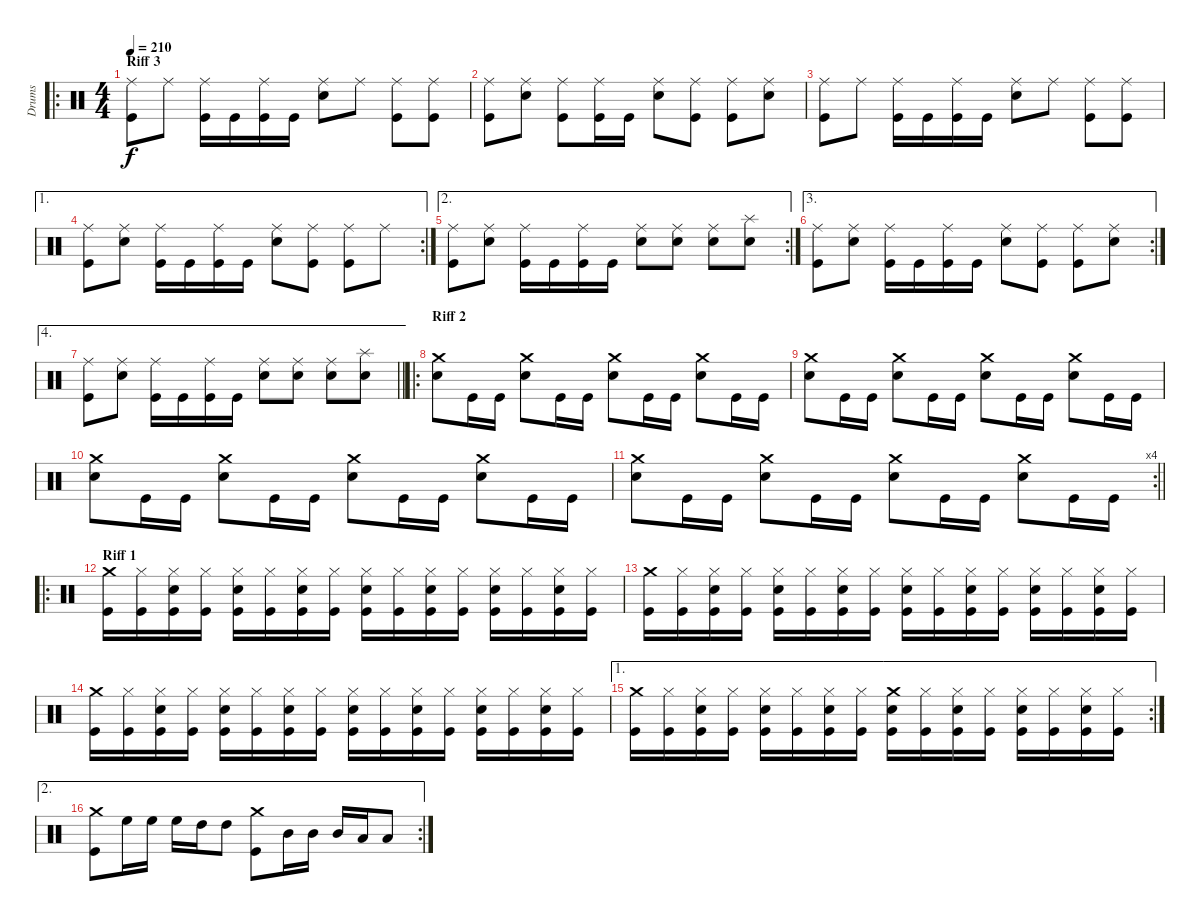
\track ("Drums" "Drums") {instrument percussion}
\staff {score}
\articulation defaults
\ro
\ts (4 4)
\section ("" "Riff 3")
\tempo 210
\clef neutral
\ks c
("Ride (middle)" "Kick (hit)").8{dy f} "Ride (middle)".8 ("Ride (middle)" "Kick (hit)").16 "Kick (hit)".16 ("Ride (middle)" "Kick (hit)").16 "Kick (hit)".16 ("Ride (middle)" "Snare (hit) 2").8 "Ride (middle)".8 ("Ride (middle)" "Kick (hit)").8 ("Ride (middle)" "Kick (hit)").8 |
("Ride (middle)" "Kick (hit)").8 ("Ride (middle)" "Snare (hit) 2").8 ("Ride (middle)" "Kick (hit)").8 ("Ride (middle)" "Kick (hit)").16 "Kick (hit)".16 ("Ride (middle)" "Snare (hit) 2").8 ("Ride (middle)" "Kick (hit)").8 ("Ride (middle)" "Kick (hit)").8 ("Ride (middle)" "Snare (hit) 2").8 |
("Ride (middle)" "Kick (hit)").8 "Ride (middle)".8 ("Ride (middle)" "Kick (hit)").16 "Kick (hit)".16 ("Ride (middle)" "Kick (hit)").16 "Kick (hit)".16 ("Ride (middle)" "Snare (hit) 2").8 "Ride (middle)".8 ("Ride (middle)" "Kick (hit)").8 ("Ride (middle)" "Kick (hit)").8 |
\ae 1
\rc 2
("Ride (middle)" "Kick (hit)").8 ("Ride (middle)" "Snare (hit) 2").8 ("Ride (middle)" "Kick (hit)").16 "Kick (hit)".16 ("Ride (middle)" "Kick (hit)").16 "Kick (hit)".16 ("Ride (middle)" "Snare (hit) 2").8 ("Ride (middle)" "Kick (hit)").8 ("Ride (middle)" "Kick (hit)").8 "Ride (middle)".8 |
\ae 2
\rc 2
("Ride (middle)" "Kick (hit)").8 ("Ride (middle)" "Snare (hit) 2").8 ("Ride (middle)" "Kick (hit)").16 "Kick (hit)".16 ("Ride (middle)" "Kick (hit)").16 "Kick (hit)".16 ("Ride (middle)" "Snare (hit) 2").8 ("Ride (middle)" "Snare (hit) 2").8 ("Ride (middle)" "Snare (hit) 2").8 ("Splash (hit)" "Snare (hit) 2").8 |
\ae 3
\rc 2
("Ride (middle)" "Kick (hit)").8 ("Ride (middle)" "Snare (hit) 2").8 ("Ride (middle)" "Kick (hit)").16 "Kick (hit)".16 ("Ride (middle)" "Kick (hit)").16 "Kick (hit)".16 ("Ride (middle)" "Snare (hit) 2").8 ("Ride (middle)" "Kick (hit)").8 ("Ride (middle)" "Kick (hit)").8 ("Ride (middle)" "Snare (hit) 2").8 |
\ae 4
\barLineRight lightlight
("Ride (middle)" "Kick (hit)").8 ("Ride (middle)" "Snare (hit) 2").8 ("Ride (middle)" "Kick (hit)").16 "Kick (hit)".16 ("Ride (middle)" "Kick (hit)").16 "Kick (hit)".16 ("Ride (middle)" "Snare (hit) 2").8 ("Ride (middle)" "Snare (hit) 2").8 ("Ride (middle)" "Snare (hit) 2").8 ("Splash (hit)" "Snare (hit) 2").8 |
\ro
\section ("" "Riff 2")
("Crash medium (hit)" "Snare (hit) 2").8 "Kick (hit)".16 "Kick (hit)".16 ("Crash medium (hit)" "Snare (hit) 2").8 "Kick (hit)".16 "Kick (hit)".16 ("Crash medium (hit)" "Snare (hit) 2").8 "Kick (hit)".16 "Kick (hit)".16 ("Crash medium (hit)" "Snare (hit) 2").8 "Kick (hit)".16 "Kick (hit)".16 |
("Crash medium (hit)" "Snare (hit) 2").8 "Kick (hit)".16 "Kick (hit)".16 ("Crash medium (hit)" "Snare (hit) 2").8 "Kick (hit)".16 "Kick (hit)".16 ("Crash medium (hit)" "Snare (hit) 2").8 "Kick (hit)".16 "Kick (hit)".16 ("Crash medium (hit)" "Snare (hit) 2").8 "Kick (hit)".16 "Kick (hit)".16 |
("Crash medium (hit)" "Snare (hit) 2").8 "Kick (hit)".16 "Kick (hit)".16 ("Crash medium (hit)" "Snare (hit) 2").8 "Kick (hit)".16 "Kick (hit)".16 ("Crash medium (hit)" "Snare (hit) 2").8 "Kick (hit)".16 "Kick (hit)".16 ("Crash medium (hit)" "Snare (hit) 2").8 "Kick (hit)".16 "Kick (hit)".16 |
\rc 4
\barLineRight lightlight
("Crash medium (hit)" "Snare (hit) 2").8 "Kick (hit)".16 "Kick (hit)".16 ("Crash medium (hit)" "Snare (hit) 2").8 "Kick (hit)".16 "Kick (hit)".16 ("Crash medium (hit)" "Snare (hit) 2").8 "Kick (hit)".16 "Kick (hit)".16 ("Crash medium (hit)" "Snare (hit) 2").8 "Kick (hit)".16 "Kick (hit)".16 |
\ro
\section ("" "Riff 1")
("Crash medium (hit)" "Kick (hit)").16 ("Hi-Hat (closed)" "Kick (hit)").16 ("Hi-Hat (closed)" "Snare (hit) 2" "Kick (hit)").16 ("Hi-Hat (closed)" "Kick (hit)").16 ("Hi-Hat (closed)" "Snare (hit) 2" "Kick (hit)").16 ("Hi-Hat (closed)" "Kick (hit)").16 ("Hi-Hat (closed)" "Snare (hit) 2" "Kick (hit)").16 ("Hi-Hat (closed)" "Kick (hit)").16 ("Hi-Hat (closed)" "Snare (hit) 2" "Kick (hit)").16 ("Hi-Hat (closed)" "Kick (hit)").16 ("Hi-Hat (closed)" "Snare (hit) 2" "Kick (hit)").16 ("Hi-Hat (closed)" "Kick (hit)").16 ("Hi-Hat (closed)" "Snare (hit) 2" "Kick (hit)").16 ("Hi-Hat (closed)" "Kick (hit)").16 ("Hi-Hat (closed)" "Snare (hit) 2" "Kick (hit)").16 ("Hi-Hat (closed)" "Kick (hit)").16 |
("Crash medium (hit)" "Kick (hit)").16 ("Hi-Hat (closed)" "Kick (hit)").16 ("Hi-Hat (closed)" "Snare (hit) 2" "Kick (hit)").16 ("Hi-Hat (closed)" "Kick (hit)").16 ("Hi-Hat (closed)" "Snare (hit) 2" "Kick (hit)").16 ("Hi-Hat (closed)" "Kick (hit)").16 ("Hi-Hat (closed)" "Snare (hit) 2" "Kick (hit)").16 ("Hi-Hat (closed)" "Kick (hit)").16 ("Hi-Hat (closed)" "Snare (hit) 2" "Kick (hit)").16 ("Hi-Hat (closed)" "Kick (hit)").16 ("Hi-Hat (closed)" "Snare (hit) 2" "Kick (hit)").16 ("Hi-Hat (closed)" "Kick (hit)").16 ("Hi-Hat (closed)" "Snare (hit) 2" "Kick (hit)").16 ("Hi-Hat (closed)" "Kick (hit)").16 ("Hi-Hat (closed)" "Snare (hit) 2" "Kick (hit)").16 ("Hi-Hat (closed)" "Kick (hit)").16 |
("Crash medium (hit)" "Kick (hit)").16 ("Hi-Hat (closed)" "Kick (hit)").16 ("Hi-Hat (closed)" "Snare (hit) 2" "Kick (hit)").16 ("Hi-Hat (closed)" "Kick (hit)").16 ("Hi-Hat (closed)" "Snare (hit) 2" "Kick (hit)").16 ("Hi-Hat (closed)" "Kick (hit)").16 ("Hi-Hat (closed)" "Snare (hit) 2" "Kick (hit)").16 ("Hi-Hat (closed)" "Kick (hit)").16 ("Hi-Hat (closed)" "Snare (hit) 2" "Kick (hit)").16 ("Hi-Hat (closed)" "Kick (hit)").16 ("Hi-Hat (closed)" "Snare (hit) 2" "Kick (hit)").16 ("Hi-Hat (closed)" "Kick (hit)").16 ("Hi-Hat (closed)" "Snare (hit) 2" "Kick (hit)").16 ("Hi-Hat (closed)" "Kick (hit)").16 ("Hi-Hat (closed)" "Snare (hit) 2" "Kick (hit)").16 ("Hi-Hat (closed)" "Kick (hit)").16 |
\ae 1
\rc 2
("Crash medium (hit)" "Kick (hit)").16 ("Hi-Hat (closed)" "Kick (hit)").16 ("Hi-Hat (closed)" "Snare (hit) 2" "Kick (hit)").16 ("Hi-Hat (closed)" "Kick (hit)").16 ("Hi-Hat (closed)" "Snare (hit) 2" "Kick (hit)").16 ("Hi-Hat (closed)" "Kick (hit)").16 ("Hi-Hat (closed)" "Snare (hit) 2" "Kick (hit)").16 ("Hi-Hat (closed)" "Kick (hit)").16 ("Crash medium (hit)" "Snare (hit) 2" "Kick (hit)").16 ("Hi-Hat (closed)" "Kick (hit)").16 ("Hi-Hat (closed)" "Snare (hit) 2" "Kick (hit)").16 ("Hi-Hat (closed)" "Kick (hit)").16 ("Hi-Hat (closed)" "Snare (hit) 2" "Kick (hit)").16 ("Hi-Hat (closed)" "Kick (hit)").16 ("Hi-Hat (closed)" "Snare (hit) 2" "Kick (hit)").16 ("Hi-Hat (closed)" "Kick (hit)").16 |
\ae 2
\rc 2
("Crash medium (hit)" "Kick (hit)").8 "High Floor Tom (hit)".16 "High Floor Tom (hit)".16 "High Floor Tom (hit)".16 "High Tom (hit)".16 "High Tom (hit)".8 ("Crash medium (hit)" "Kick (hit)").8 "Mid Tom (hit)".16 "Mid Tom (hit)".16 "Mid Tom (hit)".16 "Low Tom (hit)".16 "Low Tom (hit)".8
